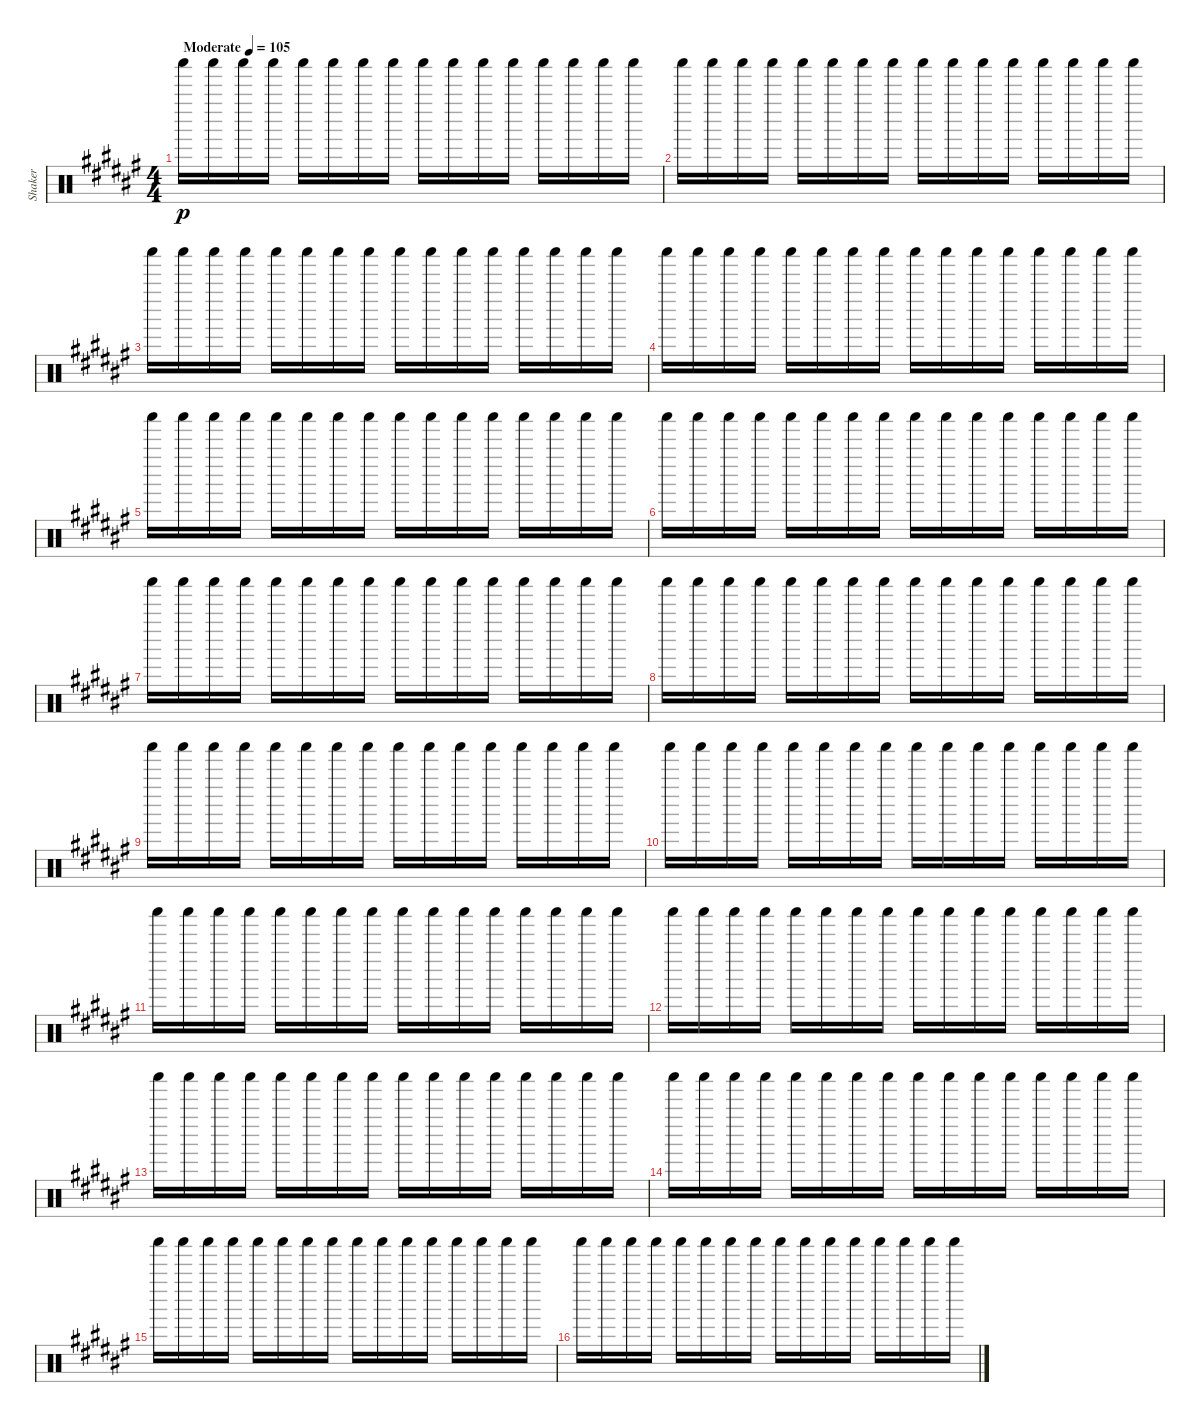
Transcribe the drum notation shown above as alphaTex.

\track ("Shaker" "Shaker") {instrument percussion}
\staff {score}
\articulation defaults
\ts (4 4)
\tempo (105 "Moderate")
\clef neutral
\ks d#minor "Shaker (hit)".16{dy p} "Shaker (hit)".16 "Shaker (hit)".16 "Shaker (hit)".16 "Shaker (hit)".16 "Shaker (hit)".16 "Shaker (hit)".16 "Shaker (hit)".16 "Shaker (hit)".16 "Shaker (hit)".16 "Shaker (hit)".16 "Shaker (hit)".16 "Shaker (hit)".16 "Shaker (hit)".16 "Shaker (hit)".16 "Shaker (hit)".16
|
"Shaker (hit)".16 "Shaker (hit)".16 "Shaker (hit)".16 "Shaker (hit)".16 "Shaker (hit)".16 "Shaker (hit)".16 "Shaker (hit)".16 "Shaker (hit)".16 "Shaker (hit)".16 "Shaker (hit)".16 "Shaker (hit)".16 "Shaker (hit)".16 "Shaker (hit)".16 "Shaker (hit)".16 "Shaker (hit)".16 "Shaker (hit)".16 |
"Shaker (hit)".16 "Shaker (hit)".16 "Shaker (hit)".16 "Shaker (hit)".16 "Shaker (hit)".16 "Shaker (hit)".16 "Shaker (hit)".16 "Shaker (hit)".16 "Shaker (hit)".16 "Shaker (hit)".16 "Shaker (hit)".16 "Shaker (hit)".16 "Shaker (hit)".16 "Shaker (hit)".16 "Shaker (hit)".16 "Shaker (hit)".16 |
"Shaker (hit)".16 "Shaker (hit)".16 "Shaker (hit)".16 "Shaker (hit)".16 "Shaker (hit)".16 "Shaker (hit)".16 "Shaker (hit)".16 "Shaker (hit)".16 "Shaker (hit)".16 "Shaker (hit)".16 "Shaker (hit)".16 "Shaker (hit)".16 "Shaker (hit)".16 "Shaker (hit)".16 "Shaker (hit)".16 "Shaker (hit)".16 |
"Shaker (hit)".16 "Shaker (hit)".16 "Shaker (hit)".16 "Shaker (hit)".16 "Shaker (hit)".16 "Shaker (hit)".16 "Shaker (hit)".16 "Shaker (hit)".16 "Shaker (hit)".16 "Shaker (hit)".16 "Shaker (hit)".16 "Shaker (hit)".16 "Shaker (hit)".16 "Shaker (hit)".16 "Shaker (hit)".16 "Shaker (hit)".16 |
"Shaker (hit)".16 "Shaker (hit)".16 "Shaker (hit)".16 "Shaker (hit)".16 "Shaker (hit)".16 "Shaker (hit)".16 "Shaker (hit)".16 "Shaker (hit)".16 "Shaker (hit)".16 "Shaker (hit)".16 "Shaker (hit)".16 "Shaker (hit)".16 "Shaker (hit)".16 "Shaker (hit)".16 "Shaker (hit)".16 "Shaker (hit)".16 |
"Shaker (hit)".16 "Shaker (hit)".16 "Shaker (hit)".16 "Shaker (hit)".16 "Shaker (hit)".16 "Shaker (hit)".16 "Shaker (hit)".16 "Shaker (hit)".16 "Shaker (hit)".16 "Shaker (hit)".16 "Shaker (hit)".16 "Shaker (hit)".16 "Shaker (hit)".16 "Shaker (hit)".16 "Shaker (hit)".16 "Shaker (hit)".16 |
"Shaker (hit)".16 "Shaker (hit)".16 "Shaker (hit)".16 "Shaker (hit)".16 "Shaker (hit)".16 "Shaker (hit)".16 "Shaker (hit)".16 "Shaker (hit)".16 "Shaker (hit)".16 "Shaker (hit)".16 "Shaker (hit)".16 "Shaker (hit)".16 "Shaker (hit)".16 "Shaker (hit)".16 "Shaker (hit)".16 "Shaker (hit)".16 |
"Shaker (hit)".16 "Shaker (hit)".16 "Shaker (hit)".16 "Shaker (hit)".16 "Shaker (hit)".16 "Shaker (hit)".16 "Shaker (hit)".16 "Shaker (hit)".16 "Shaker (hit)".16 "Shaker (hit)".16 "Shaker (hit)".16 "Shaker (hit)".16 "Shaker (hit)".16 "Shaker (hit)".16 "Shaker (hit)".16 "Shaker (hit)".16 |
"Shaker (hit)".16 "Shaker (hit)".16 "Shaker (hit)".16 "Shaker (hit)".16 "Shaker (hit)".16 "Shaker (hit)".16 "Shaker (hit)".16 "Shaker (hit)".16 "Shaker (hit)".16 "Shaker (hit)".16 "Shaker (hit)".16 "Shaker (hit)".16 "Shaker (hit)".16 "Shaker (hit)".16 "Shaker (hit)".16 "Shaker (hit)".16 |
"Shaker (hit)".16 "Shaker (hit)".16 "Shaker (hit)".16 "Shaker (hit)".16 "Shaker (hit)".16 "Shaker (hit)".16 "Shaker (hit)".16 "Shaker (hit)".16 "Shaker (hit)".16 "Shaker (hit)".16 "Shaker (hit)".16 "Shaker (hit)".16 "Shaker (hit)".16 "Shaker (hit)".16 "Shaker (hit)".16 "Shaker (hit)".16 |
"Shaker (hit)".16 "Shaker (hit)".16 "Shaker (hit)".16 "Shaker (hit)".16 "Shaker (hit)".16 "Shaker (hit)".16 "Shaker (hit)".16 "Shaker (hit)".16 "Shaker (hit)".16 "Shaker (hit)".16 "Shaker (hit)".16 "Shaker (hit)".16 "Shaker (hit)".16 "Shaker (hit)".16 "Shaker (hit)".16 "Shaker (hit)".16 |
"Shaker (hit)".16 "Shaker (hit)".16 "Shaker (hit)".16 "Shaker (hit)".16 "Shaker (hit)".16 "Shaker (hit)".16 "Shaker (hit)".16 "Shaker (hit)".16 "Shaker (hit)".16 "Shaker (hit)".16 "Shaker (hit)".16 "Shaker (hit)".16 "Shaker (hit)".16 "Shaker (hit)".16 "Shaker (hit)".16 "Shaker (hit)".16 |
"Shaker (hit)".16 "Shaker (hit)".16 "Shaker (hit)".16 "Shaker (hit)".16 "Shaker (hit)".16 "Shaker (hit)".16 "Shaker (hit)".16 "Shaker (hit)".16 "Shaker (hit)".16 "Shaker (hit)".16 "Shaker (hit)".16 "Shaker (hit)".16 "Shaker (hit)".16 "Shaker (hit)".16 "Shaker (hit)".16 "Shaker (hit)".16 |
"Shaker (hit)".16 "Shaker (hit)".16 "Shaker (hit)".16 "Shaker (hit)".16 "Shaker (hit)".16 "Shaker (hit)".16 "Shaker (hit)".16 "Shaker (hit)".16 "Shaker (hit)".16 "Shaker (hit)".16 "Shaker (hit)".16 "Shaker (hit)".16 "Shaker (hit)".16 "Shaker (hit)".16 "Shaker (hit)".16 "Shaker (hit)".16 |
"Shaker (hit)".16 "Shaker (hit)".16 "Shaker (hit)".16 "Shaker (hit)".16 "Shaker (hit)".16 "Shaker (hit)".16 "Shaker (hit)".16 "Shaker (hit)".16 "Shaker (hit)".16 "Shaker (hit)".16 "Shaker (hit)".16 "Shaker (hit)".16 "Shaker (hit)".16 "Shaker (hit)".16 "Shaker (hit)".16 "Shaker (hit)".16
